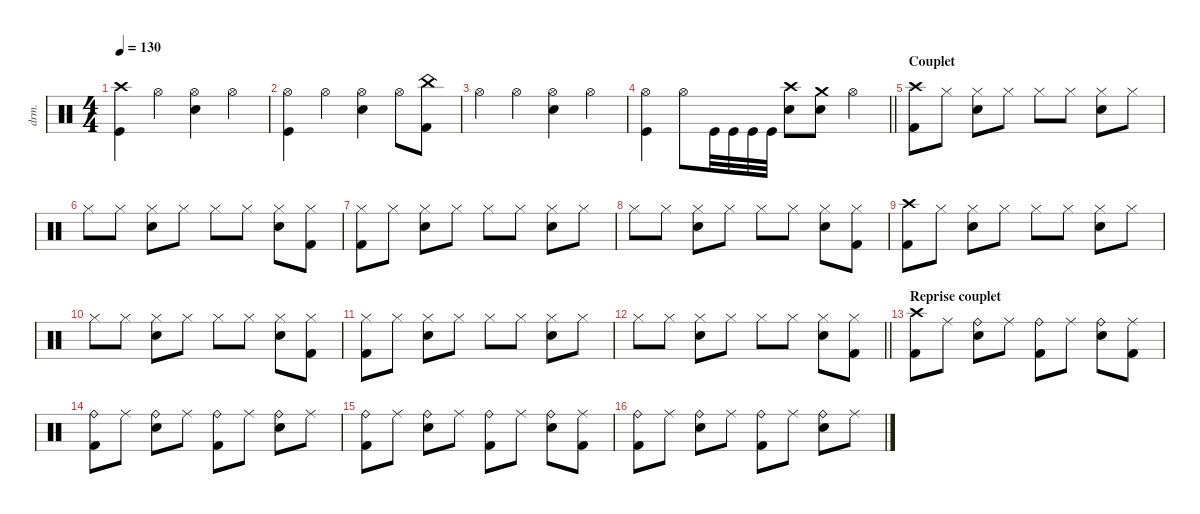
\defaultSystemsLayout 4
\hideDynamics
\bracketExtendMode nobrackets
\track ("Manouche" "drm.") {instrument percussion}
\staff {score}
\articulation defaults
\ts (4 4)
\tempo 130
\clef neutral
\ks c
("Crash high (hit)" "Kick (hit)").4{dy f} "Hi-Hat (open)".4 ("Hi-Hat (open)" "Snare (hit) 2").4 "Hi-Hat (open)".4 |
("Hi-Hat (open)" "Kick (hit)").4 "Hi-Hat (open)".4 ("Hi-Hat (open)" "Snare (hit) 2").4 "Hi-Hat (open)".8 ("China (hit)" "Kick (hit) 2").8 |
"Hi-Hat (open)".4 "Hi-Hat (open)".4 ("Hi-Hat (open)" "Snare (hit) 2").4 "Hi-Hat (open)".4 |
\barLineRight lightlight
("Hi-Hat (open)" "Kick (hit)").4 "Hi-Hat (open)".8 "Kick (hit)".32 "Kick (hit)".32 "Kick (hit)".32 "Kick (hit)".32 ("Snare (hit) 2" "Crash high (hit)").8 ("Crash medium (hit)" "Snare (hit) 2").8 "Hi-Hat (open)".4 |
\section ("" "Couplet")
("Crash high (hit)" "Kick (hit) 2").8 "Hi-Hat (closed)".8{dy mp} ("Hi-Hat (closed)" "Snare (hit) 2").8{dy f} "Hi-Hat (closed)".8{dy mp} "Hi-Hat (closed)".8{dy f} "Hi-Hat (closed)".8{dy mp} ("Hi-Hat (closed)" "Snare (hit) 2").8{dy f} "Hi-Hat (closed)".8{dy mp} |
"Hi-Hat (closed)".8{dy f} "Hi-Hat (closed)".8{dy mp} ("Hi-Hat (closed)" "Snare (hit) 2").8{dy f} "Hi-Hat (closed)".8{dy mp} "Hi-Hat (closed)".8{dy f} "Hi-Hat (closed)".8{dy mp} ("Hi-Hat (closed)" "Snare (hit) 2").8{dy f} ("Hi-Hat (closed)" "Kick (hit) 2").8{dy mp} |
("Hi-Hat (closed)" "Kick (hit) 2").8 "Hi-Hat (closed)".8 ("Hi-Hat (closed)" "Snare (hit) 2").8{dy f} "Hi-Hat (closed)".8{dy mp} "Hi-Hat (closed)".8{dy f} "Hi-Hat (closed)".8{dy mp} ("Hi-Hat (closed)" "Snare (hit) 2").8{dy f} "Hi-Hat (closed)".8{dy mp} |
"Hi-Hat (closed)".8{dy f} "Hi-Hat (closed)".8{dy mp} ("Hi-Hat (closed)" "Snare (hit) 2").8{dy f} "Hi-Hat (closed)".8{dy mp} "Hi-Hat (closed)".8{dy f} "Hi-Hat (closed)".8{dy mp} ("Hi-Hat (closed)" "Snare (hit) 2").8{dy f} ("Hi-Hat (closed)" "Kick (hit) 2").8{dy mp} |
("Crash high (hit)" "Kick (hit) 2").8{dy f} "Hi-Hat (closed)".8{dy mp} ("Hi-Hat (closed)" "Snare (hit) 2").8{dy f} "Hi-Hat (closed)".8{dy mp} "Hi-Hat (closed)".8{dy f} "Hi-Hat (closed)".8{dy mp} ("Hi-Hat (closed)" "Snare (hit) 2").8{dy f} "Hi-Hat (closed)".8{dy mp} |
"Hi-Hat (closed)".8{dy f} "Hi-Hat (closed)".8{dy mp} ("Hi-Hat (closed)" "Snare (hit) 2").8{dy f} "Hi-Hat (closed)".8{dy mp} "Hi-Hat (closed)".8{dy f} "Hi-Hat (closed)".8{dy mp} ("Hi-Hat (closed)" "Snare (hit) 2").8{dy f} ("Hi-Hat (closed)" "Kick (hit) 2").8{dy mp} |
("Hi-Hat (closed)" "Kick (hit) 2").8 "Hi-Hat (closed)".8 ("Hi-Hat (closed)" "Snare (hit) 2").8{dy f} "Hi-Hat (closed)".8{dy mp} "Hi-Hat (closed)".8{dy f} "Hi-Hat (closed)".8{dy mp} ("Hi-Hat (closed)" "Snare (hit) 2").8{dy f} "Hi-Hat (closed)".8{dy mp} |
\barLineRight lightlight "Hi-Hat (closed)".8{dy f} "Hi-Hat (closed)".8{dy mp}
("Hi-Hat (closed)" "Snare (hit) 2").8{dy f} "Hi-Hat (closed)".8{dy mp} "Hi-Hat (closed)".8{dy f} "Hi-Hat (closed)".8{dy mp} ("Hi-Hat (closed)" "Snare (hit) 2").8{dy f} ("Hi-Hat (closed)" "Kick (hit) 2").8{dy mp} |
\section ("" "Reprise couplet")
("Crash high (hit)" "Kick (hit) 2").8{dy f} "Ride (middle)".8{dy mf} ("Ride (bell)" "Snare (hit) 2").8{dy f} "Ride (middle)".8{dy mf} ("Ride (bell)" "Kick (hit) 2").8{dy f} "Ride (middle)".8{dy mf} ("Ride (bell)" "Snare (hit) 2").8{dy f} ("Ride (middle)" "Kick (hit) 2").8{dy mf} |
("Ride (bell)" "Kick (hit) 2").8{dy f} "Ride (middle)".8{dy mf} ("Ride (bell)" "Snare (hit) 2").8{dy f} "Ride (middle)".8{dy mf} ("Ride (bell)" "Kick (hit) 2").8{dy f} "Ride (middle)".8{dy mf} ("Ride (bell)" "Snare (hit) 2").8{dy f} "Ride (middle)".8{dy mf} |
("Ride (bell)" "Kick (hit) 2").8{dy f} "Ride (middle)".8{dy mf} ("Ride (bell)" "Snare (hit) 2").8{dy f} "Ride (middle)".8{dy mf} ("Ride (bell)" "Kick (hit) 2").8{dy f} "Ride (middle)".8{dy mf} ("Ride (bell)" "Snare (hit) 2").8{dy f} ("Ride (middle)" "Kick (hit) 2").8{dy mf} |
("Ride (bell)" "Kick (hit) 2").8{dy f} "Ride (middle)".8{dy mf} ("Ride (bell)" "Snare (hit) 2").8{dy f} "Ride (middle)".8{dy mf} ("Ride (bell)" "Kick (hit) 2").8{dy f} "Ride (middle)".8{dy mf} ("Ride (bell)" "Snare (hit) 2").8{dy f} "Ride (middle)".8{dy mf}
